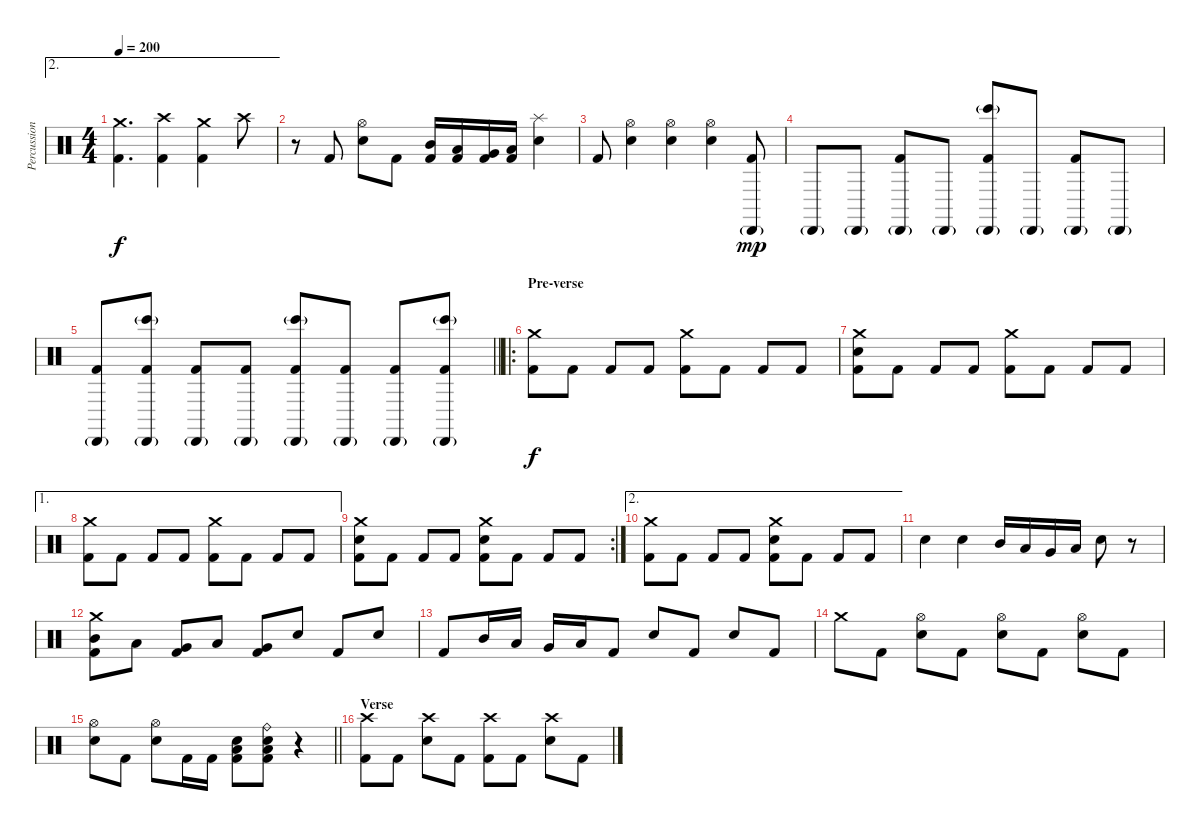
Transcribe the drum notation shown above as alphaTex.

\track ("Percussion" "Percussion") {instrument percussion}
\staff {score}
\articulation defaults
\ae 2
\ts (4 4)
\tempo 200
\clef neutral
\ks c
("Crash medium (hit)" "Kick (hit) 2").4{d dy f} ("Crash high (hit)" "Kick (hit) 2").4 ("Crash medium (hit)" "Kick (hit) 2").4 "Crash high (hit)".8 |
r.8 "Kick (hit) 2".8 ("Hi-Hat (open)" "Snare (hit) 2").8 "Kick (hit) 2".8 ("Mid Tom (hit)" "Kick (hit) 2").16 ("Low Tom (hit)" "Kick (hit) 2").16 ("Very Low Tom (hit)" "Kick (hit) 2").16 ("Low Floor Tom (hit)" "Kick (hit) 2").16 ("Splash (hit)" "Snare (hit) 2").4 |
"Kick (hit) 2".8 ("Hi-Hat (open)" "Snare (hit) 2").4 ("Hi-Hat (open)" "Snare (hit) 2").4 ("Hi-Hat (open)" "Snare (hit) 2").4 ("Cabasa (hit)"{g} "Kick (hit) 2").8{dy mp} |
"Cabasa (hit)"{g}.8 "Cabasa (hit)"{g}.8 ("Cabasa (hit)"{g} "Kick (hit) 2").8 "Cabasa (hit)"{g}.8 ("Cabasa (hit)"{g} "Bongo High (hit)"{g} "Kick (hit) 2").8 "Cabasa (hit)"{g}.8 ("Cabasa (hit)"{g} "Kick (hit) 2").8 "Cabasa (hit)"{g}.8 |
\barLineRight lightlight
("Cabasa (hit)"{g} "Kick (hit) 2").8 ("Cabasa (hit)"{g} "Bongo High (hit)"{g} "Kick (hit) 2").8 ("Cabasa (hit)"{g} "Kick (hit) 2").8 ("Cabasa (hit)"{g} "Kick (hit) 2").8 ("Cabasa (hit)"{g} "Bongo High (hit)"{g} "Kick (hit) 2").8 ("Cabasa (hit)"{g} "Kick (hit) 2").8 ("Cabasa (hit)"{g} "Kick (hit) 2").8 ("Cabasa (hit)"{g} "Bongo High (hit)"{g} "Kick (hit) 2").8 |
\ro
\section ("" "Pre-verse")
("Crash medium (hit)" "Kick (hit) 2").8{dy f} "Kick (hit) 2".8 "Kick (hit) 2".8 "Kick (hit) 2".8 ("Crash medium (hit)" "Kick (hit) 2").8 "Kick (hit) 2".8 "Kick (hit) 2".8 "Kick (hit) 2".8 |
("Crash medium (hit)" "Snare (hit) 2" "Kick (hit) 2").8 "Kick (hit) 2".8 "Kick (hit) 2".8 "Kick (hit) 2".8 ("Crash medium (hit)" "Kick (hit) 2").8 "Kick (hit) 2".8 "Kick (hit) 2".8 "Kick (hit) 2".8 |
\ae 1
("Crash medium (hit)" "Kick (hit) 2").8 "Kick (hit) 2".8 "Kick (hit) 2".8 "Kick (hit) 2".8 ("Crash medium (hit)" "Kick (hit) 2").8 "Kick (hit) 2".8 "Kick (hit) 2".8 "Kick (hit) 2".8 |
\rc 2
("Crash medium (hit)" "Snare (hit) 2" "Kick (hit) 2").8 "Kick (hit) 2".8 "Kick (hit) 2".8 "Kick (hit) 2".8 ("Crash medium (hit)" "Snare (hit) 2" "Kick (hit) 2").8 "Kick (hit) 2".8 "Kick (hit) 2".8 "Kick (hit) 2".8 |
\ae 2
("Crash medium (hit)" "Kick (hit) 2").8 "Kick (hit) 2".8 "Kick (hit) 2".8 "Kick (hit) 2".8 ("Crash medium (hit)" "Snare (hit) 2" "Kick (hit) 2").8 "Kick (hit) 2".8 "Kick (hit) 2".8 "Kick (hit) 2".8 |
"Snare (hit) 2".4 "Snare (hit) 2".4 "Mid Tom (hit)".16 "Low Tom (hit)".16 "Very Low Tom (hit)".16 "Low Floor Tom (hit)".16 "Snare (hit) 2".8 r.8 |
("Crash medium (hit)" "Mid Tom (hit)" "Kick (hit) 2").8 "Low Tom (hit)".8 ("Very Low Tom (hit)" "Kick (hit) 2").8 "Low Tom (hit)".8 ("Very Low Tom (hit)" "Kick (hit) 2").8 "Snare (hit) 2".8 "Kick (hit) 2".8 "Snare (hit) 2".8 |
"Kick (hit) 2".8 "Mid Tom (hit)".16 "Low Tom (hit)".16 "Very Low Tom (hit)".16 "Low Floor Tom (hit)".16 "Kick (hit) 2".8 "Snare (hit) 2".8 "Kick (hit) 2".8 "Snare (hit) 2".8 "Kick (hit) 2".8 |
"Crash medium (hit)".8 "Kick (hit) 2".8 ("Snare (hit) 2" "Hi-Hat (open)").8 "Kick (hit) 2".8 ("Snare (hit) 2" "Hi-Hat (open)").8 "Kick (hit) 2".8 ("Snare (hit) 2" "Hi-Hat (open)").8 "Kick (hit) 2".8 |
\barLineRight lightlight
("Snare (hit) 2" "Hi-Hat (open)").8 "Kick (hit) 2".8 ("Snare (hit) 2" "Hi-Hat (open)").8 "Kick (hit) 2".16 "Kick (hit) 2".16 ("Snare (hit) 2" "Low Floor Tom (hit)" "Kick (hit) 2").8 ("Ride (bell)" "Snare (hit) 2" "Low Floor Tom (hit)" "Kick (hit) 2").8 r.4 |
\section ("" "Verse")
("Crash high (hit)" "Kick (hit) 2").8 "Kick (hit) 2".8 ("Crash high (hit)" "Snare (hit) 2").8 "Kick (hit) 2".8 ("Crash high (hit)" "Kick (hit) 2").8 "Kick (hit) 2".8 ("Crash high (hit)" "Snare (hit) 2").8 "Kick (hit) 2".8
